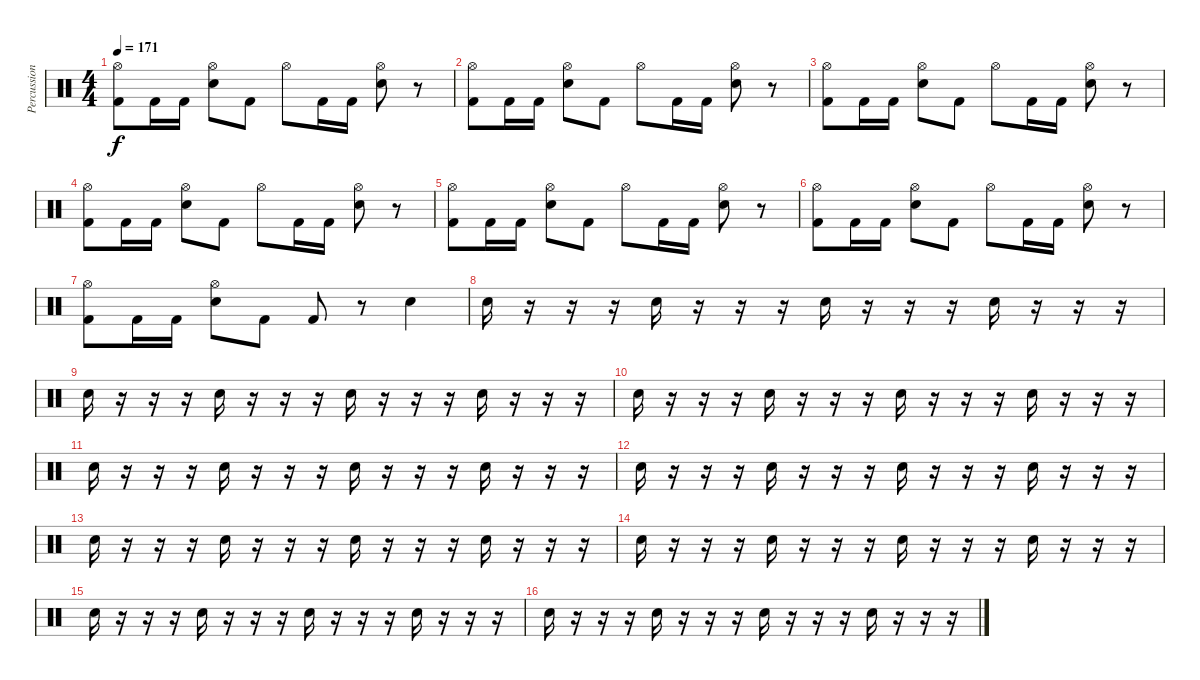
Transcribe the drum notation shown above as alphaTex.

\track ("Percussions" "Percussion") {instrument percussion}
\staff {score}
\articulation defaults
\ts (4 4)
\tempo 171
\clef neutral
\ks c
("Hi-Hat (open)" "Kick (hit) 2").8{dy f} "Kick (hit) 2".16 "Kick (hit) 2".16 ("Hi-Hat (open)" "Electric Snare (hit)").8 "Kick (hit) 2".8 "Hi-Hat (open)".8 "Kick (hit) 2".16 "Kick (hit) 2".16 ("Hi-Hat (open)" "Electric Snare (hit)").8 r.8 |
("Hi-Hat (open)" "Kick (hit) 2").8 "Kick (hit) 2".16 "Kick (hit) 2".16 ("Hi-Hat (open)" "Electric Snare (hit)").8 "Kick (hit) 2".8 "Hi-Hat (open)".8 "Kick (hit) 2".16 "Kick (hit) 2".16 ("Hi-Hat (open)" "Electric Snare (hit)").8 r.8 |
("Hi-Hat (open)" "Kick (hit) 2").8 "Kick (hit) 2".16 "Kick (hit) 2".16 ("Hi-Hat (open)" "Electric Snare (hit)").8 "Kick (hit) 2".8 "Hi-Hat (open)".8 "Kick (hit) 2".16 "Kick (hit) 2".16 ("Hi-Hat (open)" "Electric Snare (hit)").8 r.8 |
("Hi-Hat (open)" "Kick (hit) 2").8 "Kick (hit) 2".16 "Kick (hit) 2".16 ("Hi-Hat (open)" "Electric Snare (hit)").8 "Kick (hit) 2".8 "Hi-Hat (open)".8 "Kick (hit) 2".16 "Kick (hit) 2".16 ("Hi-Hat (open)" "Electric Snare (hit)").8 r.8 |
("Hi-Hat (open)" "Kick (hit) 2").8 "Kick (hit) 2".16 "Kick (hit) 2".16 ("Hi-Hat (open)" "Electric Snare (hit)").8 "Kick (hit) 2".8 "Hi-Hat (open)".8 "Kick (hit) 2".16 "Kick (hit) 2".16 ("Hi-Hat (open)" "Electric Snare (hit)").8 r.8 |
("Hi-Hat (open)" "Kick (hit) 2").8 "Kick (hit) 2".16 "Kick (hit) 2".16 ("Hi-Hat (open)" "Electric Snare (hit)").8 "Kick (hit) 2".8 "Hi-Hat (open)".8 "Kick (hit) 2".16 "Kick (hit) 2".16 ("Hi-Hat (open)" "Electric Snare (hit)").8 r.8 |
("Hi-Hat (open)" "Kick (hit) 2").8 "Kick (hit) 2".16 "Kick (hit) 2".16 ("Hi-Hat (open)" "Electric Snare (hit)").8 "Kick (hit) 2".8 "Kick (hit) 2".8 r.8 "Electric Snare (hit)".4 |
"Electric Snare (hit)".16 r.16 r.16 r.16 "Electric Snare (hit)".16 r.16 r.16 r.16 "Electric Snare (hit)".16 r.16 r.16 r.16 "Electric Snare (hit)".16 r.16 r.16 r.16 |
"Electric Snare (hit)".16 r.16 r.16 r.16 "Electric Snare (hit)".16 r.16 r.16 r.16 "Electric Snare (hit)".16 r.16 r.16 r.16 "Electric Snare (hit)".16 r.16 r.16 r.16 |
"Electric Snare (hit)".16 r.16 r.16 r.16 "Electric Snare (hit)".16 r.16 r.16 r.16 "Electric Snare (hit)".16 r.16 r.16 r.16 "Electric Snare (hit)".16 r.16 r.16 r.16 |
"Electric Snare (hit)".16 r.16 r.16 r.16 "Electric Snare (hit)".16 r.16 r.16 r.16 "Electric Snare (hit)".16 r.16 r.16 r.16 "Electric Snare (hit)".16 r.16 r.16 r.16 |
"Electric Snare (hit)".16 r.16 r.16 r.16 "Electric Snare (hit)".16 r.16 r.16 r.16 "Electric Snare (hit)".16 r.16 r.16 r.16 "Electric Snare (hit)".16 r.16 r.16 r.16 |
"Electric Snare (hit)".16 r.16 r.16 r.16 "Electric Snare (hit)".16 r.16 r.16 r.16 "Electric Snare (hit)".16 r.16 r.16 r.16 "Electric Snare (hit)".16 r.16 r.16 r.16 |
"Electric Snare (hit)".16 r.16 r.16 r.16 "Electric Snare (hit)".16 r.16 r.16 r.16 "Electric Snare (hit)".16 r.16 r.16 r.16 "Electric Snare (hit)".16 r.16 r.16 r.16 |
"Electric Snare (hit)".16 r.16 r.16 r.16 "Electric Snare (hit)".16 r.16 r.16 r.16 "Electric Snare (hit)".16 r.16 r.16 r.16 "Electric Snare (hit)".16 r.16 r.16 r.16 |
"Electric Snare (hit)".16 r.16 r.16 r.16 "Electric Snare (hit)".16 r.16 r.16 r.16 "Electric Snare (hit)".16 r.16 r.16 r.16 "Electric Snare (hit)".16 r.16 r.16 r.16
